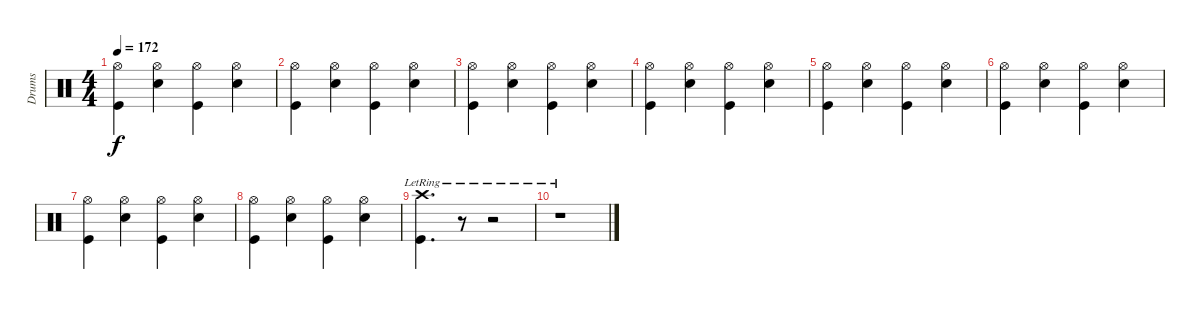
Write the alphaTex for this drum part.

\track ("Drums" "Drums") {instrument percussion}
\staff {score}
\articulation defaults
\ts (4 4)
\tempo 172
\clef neutral
\ks c
("Kick (hit)" "Hi-Hat (open)").4{dy f} ("Snare (hit) 2" "Hi-Hat (open)").4 ("Kick (hit)" "Hi-Hat (open)").4 ("Snare (hit) 2" "Hi-Hat (open)").4 |
("Kick (hit)" "Hi-Hat (open)").4 ("Snare (hit) 2" "Hi-Hat (open)").4 ("Kick (hit)" "Hi-Hat (open)").4 ("Snare (hit) 2" "Hi-Hat (open)").4 |
("Kick (hit)" "Hi-Hat (open)").4 ("Snare (hit) 2" "Hi-Hat (open)").4 ("Kick (hit)" "Hi-Hat (open)").4 ("Snare (hit) 2" "Hi-Hat (open)").4 |
("Kick (hit)" "Hi-Hat (open)").4 ("Snare (hit) 2" "Hi-Hat (open)").4 ("Kick (hit)" "Hi-Hat (open)").4 ("Snare (hit) 2" "Hi-Hat (open)").4 |
("Kick (hit)" "Hi-Hat (open)").4 ("Snare (hit) 2" "Hi-Hat (open)").4 ("Kick (hit)" "Hi-Hat (open)").4 ("Snare (hit) 2" "Hi-Hat (open)").4 |
("Kick (hit)" "Hi-Hat (open)").4 ("Snare (hit) 2" "Hi-Hat (open)").4 ("Kick (hit)" "Hi-Hat (open)").4 ("Snare (hit) 2" "Hi-Hat (open)").4 |
("Kick (hit)" "Hi-Hat (open)").4 ("Snare (hit) 2" "Hi-Hat (open)").4 ("Kick (hit)" "Hi-Hat (open)").4 ("Snare (hit) 2" "Hi-Hat (open)").4 |
("Kick (hit)" "Hi-Hat (open)").4 ("Snare (hit) 2" "Hi-Hat (open)").4 ("Kick (hit)" "Hi-Hat (open)").4 ("Snare (hit) 2" "Hi-Hat (open)").4 |
("Kick (hit)" "Crash high (hit)"{lr}).4{d} r.8 r.2 |
r.1
